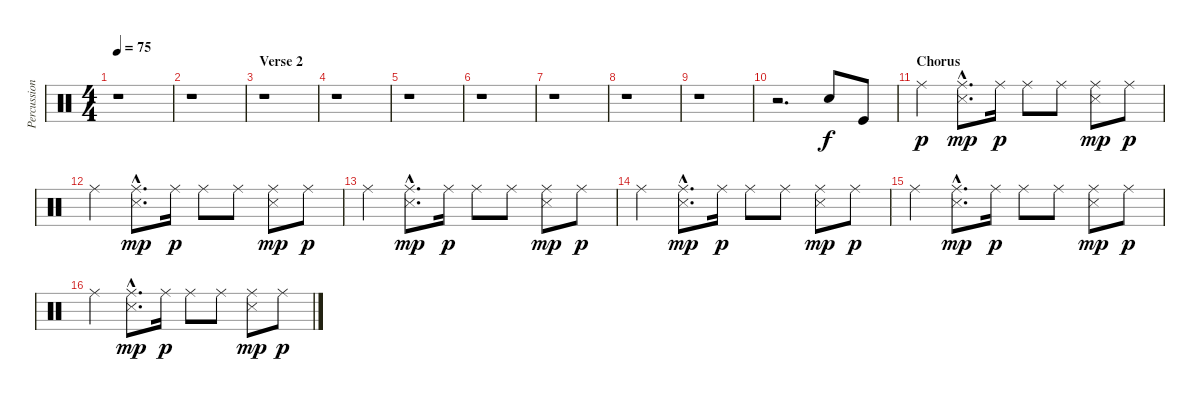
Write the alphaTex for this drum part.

\track ("Percussion - Adam Topol" "Percussion") {instrument percussion}
\staff {score}
\articulation defaults
\ts (4 4)
\tempo 75
\clef neutral
\ks c
r.1{dy p} |
r.1 |
\section ("" "Verse 2")
r.1 |
r.1 |
r.1 |
r.1 |
r.1 |
r.1 |
r.1 |
r.2{d} "Electric Snare (hit)".8{dy f} "Kick (hit)".8 |
\section ("" "Chorus")
"Ride (middle)".4{dy p} ("Ride (middle)"{hac} "Snare (side stick) 3"{hac}).8{d dy mp} "Ride (middle)".16{dy p} "Ride (middle)".8 "Ride (middle)".8 ("Ride (middle)" "Snare (side stick) 3").8{dy mp} "Ride (middle)".8{dy p} |
"Ride (middle)".4 ("Ride (middle)"{hac} "Snare (side stick) 3"{hac}).8{d dy mp} "Ride (middle)".16{dy p} "Ride (middle)".8 "Ride (middle)".8 ("Ride (middle)" "Snare (side stick) 3").8{dy mp} "Ride (middle)".8{dy p} |
"Ride (middle)".4 ("Ride (middle)"{hac} "Snare (side stick) 3"{hac}).8{d dy mp} "Ride (middle)".16{dy p} "Ride (middle)".8 "Ride (middle)".8 ("Ride (middle)" "Snare (side stick) 3").8{dy mp} "Ride (middle)".8{dy p} |
"Ride (middle)".4 ("Ride (middle)"{hac} "Snare (side stick) 3"{hac}).8{d dy mp} "Ride (middle)".16{dy p} "Ride (middle)".8 "Ride (middle)".8 ("Ride (middle)" "Snare (side stick) 3").8{dy mp} "Ride (middle)".8{dy p} |
"Ride (middle)".4 ("Ride (middle)"{hac} "Snare (side stick) 3"{hac}).8{d dy mp} "Ride (middle)".16{dy p} "Ride (middle)".8 "Ride (middle)".8 ("Ride (middle)" "Snare (side stick) 3").8{dy mp} "Ride (middle)".8{dy p} |
"Ride (middle)".4 ("Ride (middle)"{hac} "Snare (side stick) 3"{hac}).8{d dy mp} "Ride (middle)".16{dy p} "Ride (middle)".8 "Ride (middle)".8 ("Ride (middle)" "Snare (side stick) 3").8{dy mp} "Ride (middle)".8{dy p}
